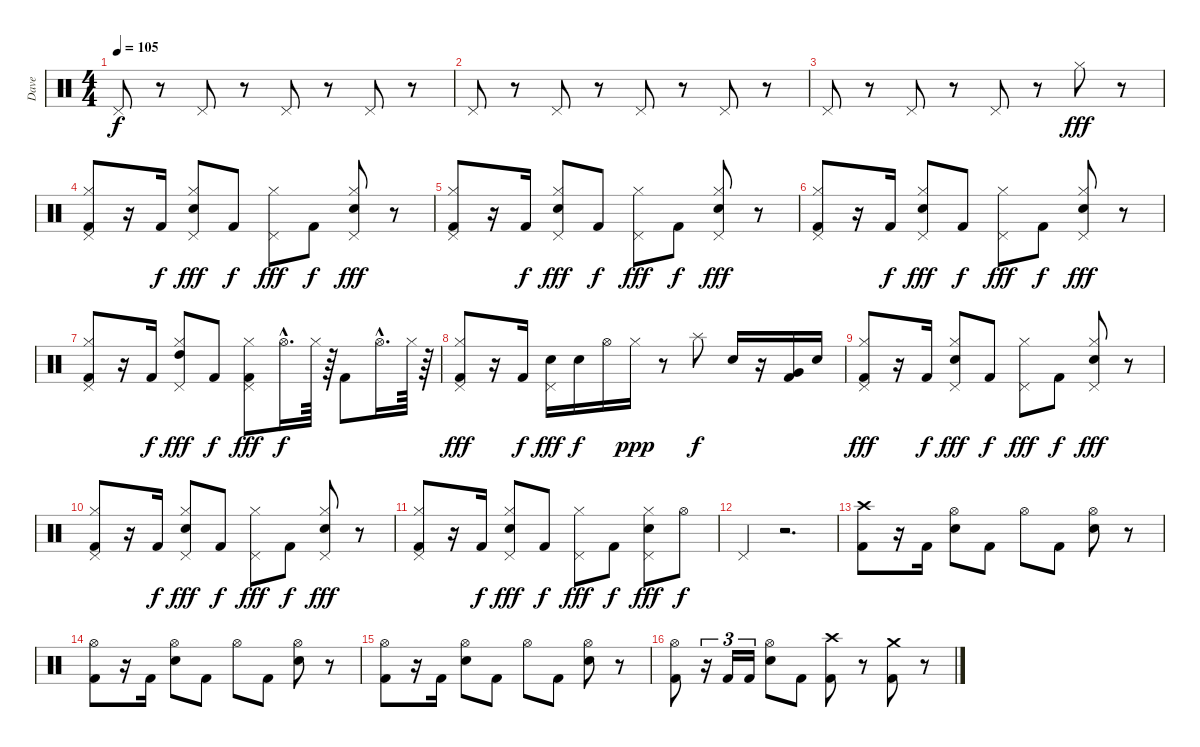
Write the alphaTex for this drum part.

\track ("Dave" "Dave") {instrument percussion}
\staff {score}
\articulation defaults
\ts (4 4)
\tempo 105
\clef neutral
\ks c "Pedal Hi-Hat (hit)".8{dy f}
r.8 "Pedal Hi-Hat (hit)".8 r.8 "Pedal Hi-Hat (hit)".8 r.8 "Pedal Hi-Hat (hit)".8 r.8 |
"Pedal Hi-Hat (hit)".8 r.8 "Pedal Hi-Hat (hit)".8 r.8 "Pedal Hi-Hat (hit)".8 r.8 "Pedal Hi-Hat (hit)".8 r.8 |
"Pedal Hi-Hat (hit)".8 r.8 "Pedal Hi-Hat (hit)".8 r.8 "Pedal Hi-Hat (hit)".8 r.8 "Hi-Hat (closed)".8{dy fff} r.8 |
("Hi-Hat (closed)" "Pedal Hi-Hat (hit)" "Kick (hit) 2").8 r.16 "Kick (hit) 2".16{dy f} ("Hi-Hat (closed)" "Pedal Hi-Hat (hit)" "Snare (hit) 2").8{dy fff} "Kick (hit) 2".8{dy f} ("Hi-Hat (closed)" "Pedal Hi-Hat (hit)").8{dy fff} "Kick (hit) 2".8{dy f} ("Hi-Hat (closed)" "Pedal Hi-Hat (hit)" "Snare (hit) 2").8{dy fff} r.8 |
("Hi-Hat (closed)" "Pedal Hi-Hat (hit)" "Kick (hit) 2").8 r.16 "Kick (hit) 2".16{dy f} ("Hi-Hat (closed)" "Pedal Hi-Hat (hit)" "Snare (hit) 2").8{dy fff} "Kick (hit) 2".8{dy f} ("Hi-Hat (closed)" "Pedal Hi-Hat (hit)").8{dy fff} "Kick (hit) 2".8{dy f} ("Hi-Hat (closed)" "Pedal Hi-Hat (hit)" "Snare (hit) 2").8{dy fff} r.8 |
("Hi-Hat (closed)" "Pedal Hi-Hat (hit)" "Kick (hit) 2").8 r.16 "Kick (hit) 2".16{dy f} ("Hi-Hat (closed)" "Pedal Hi-Hat (hit)" "Snare (hit) 2").8{dy fff} "Kick (hit) 2".8{dy f} ("Hi-Hat (closed)" "Pedal Hi-Hat (hit)").8{dy fff} "Kick (hit) 2".8{dy f} ("Hi-Hat (closed)" "Pedal Hi-Hat (hit)" "Snare (hit) 2").8{dy fff} r.8 |
("Hi-Hat (closed)" "Pedal Hi-Hat (hit)" "Kick (hit) 2").8 r.16 "Kick (hit) 2".16{dy f} ("Hi-Hat (closed)" "Pedal Hi-Hat (hit)" "High Tom (hit)").8{dy fff} "Kick (hit) 2".8{dy f} ("Hi-Hat (closed)" "Pedal Hi-Hat (hit)" "Kick (hit) 2").8{dy fff} "Hi-Hat (open)"{hac}.16{d dy f} "Hi-Hat (closed)".64{volume 0} r.64{volume 16} "Kick (hit) 2".8 "Hi-Hat (open)"{hac}.16{d} "Hi-Hat (closed)".64{volume 0} r.64{volume 16} |
("Pedal Hi-Hat (hit)" "Hi-Hat (closed)" "Kick (hit) 2").8{dy fff} r.16 "Kick (hit) 2".16{dy f} ("Pedal Hi-Hat (hit)" "Snare (hit) 2").16{dy fff} "Snare (hit) 2".16{dy f} "Hi-Hat (open)".16 "Hi-Hat (closed)".16{dy ppp volume 16} r.8 "Splash (hit)".8{dy f} "Snare (hit) 2".16 r.16 ("Very Low Tom (hit)" "Kick (hit) 2").16 "Snare (hit) 2".16 |
("Hi-Hat (closed)" "Pedal Hi-Hat (hit)" "Kick (hit) 2").8{dy fff} r.16 "Kick (hit) 2".16{dy f} ("Hi-Hat (closed)" "Pedal Hi-Hat (hit)" "Snare (hit) 2").8{dy fff} "Kick (hit) 2".8{dy f} ("Hi-Hat (closed)" "Pedal Hi-Hat (hit)").8{dy fff} "Kick (hit) 2".8{dy f} ("Hi-Hat (closed)" "Pedal Hi-Hat (hit)" "Snare (hit) 2").8{dy fff} r.8 |
("Hi-Hat (closed)" "Pedal Hi-Hat (hit)" "Kick (hit) 2").8 r.16 "Kick (hit) 2".16{dy f} ("Hi-Hat (closed)" "Pedal Hi-Hat (hit)" "Snare (hit) 2").8{dy fff} "Kick (hit) 2".8{dy f} ("Hi-Hat (closed)" "Pedal Hi-Hat (hit)").8{dy fff} "Kick (hit) 2".8{dy f} ("Hi-Hat (closed)" "Pedal Hi-Hat (hit)" "Snare (hit) 2").8{dy fff} r.8 |
("Hi-Hat (closed)" "Pedal Hi-Hat (hit)" "Kick (hit) 2").8 r.16 "Kick (hit) 2".16{dy f} ("Hi-Hat (closed)" "Pedal Hi-Hat (hit)" "Snare (hit) 2").8{dy fff} "Kick (hit) 2".8{dy f} ("Hi-Hat (closed)" "Pedal Hi-Hat (hit)").8{dy fff} "Kick (hit) 2".8{dy f} ("Hi-Hat (closed)" "Pedal Hi-Hat (hit)" "Snare (hit) 2").8{dy fff} "Hi-Hat (open)".8{dy f} |
"Pedal Hi-Hat (hit)".4 r.2{d} |
("Crash high (hit)" "Kick (hit) 2").8 r.16 "Kick (hit) 2".16 ("Hi-Hat (open)" "Snare (hit) 2").8 "Kick (hit) 2".8 "Hi-Hat (open)".8 "Kick (hit) 2".8 ("Hi-Hat (open)" "Snare (hit) 2").8 r.8 |
("Hi-Hat (open)" "Kick (hit) 2").8 r.16 "Kick (hit) 2".16 ("Hi-Hat (open)" "Snare (hit) 2").8 "Kick (hit) 2".8 "Hi-Hat (open)".8 "Kick (hit) 2".8 ("Hi-Hat (open)" "Snare (hit) 2").8 r.8 |
("Hi-Hat (open)" "Kick (hit) 2").8 r.16 "Kick (hit) 2".16 ("Hi-Hat (open)" "Snare (hit) 2").8 "Kick (hit) 2".8 "Hi-Hat (open)".8 "Kick (hit) 2".8 ("Hi-Hat (open)" "Snare (hit) 2").8 r.8 |
("Hi-Hat (open)" "Kick (hit) 2").8 r.16{tu (3 2)} "Kick (hit) 2".16{tu (3 2)} "Kick (hit) 2".16{tu (3 2)} ("Hi-Hat (open)" "Snare (hit) 2").8 "Kick (hit) 2".8 ("Crash high (hit)" "Kick (hit) 2").8 r.8 ("Crash medium (hit)" "Kick (hit) 2").8 r.8
